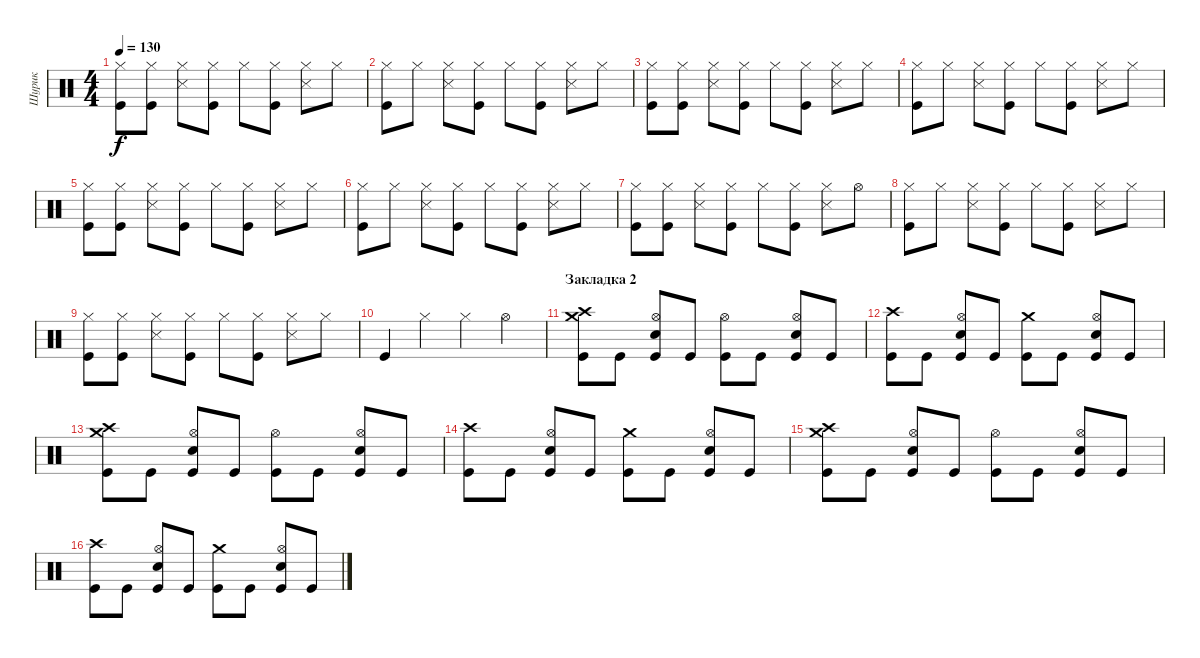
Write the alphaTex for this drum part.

\track ("Шурик" "Шурик") {instrument percussion}
\staff {score}
\articulation defaults
\ts (4 4)
\tempo 130
\clef neutral
\ks c
("Kick (hit)" "Hi-Hat (closed)").8{dy f} ("Kick (hit)" "Hi-Hat (closed)").8 ("Snare (side stick) 3" "Hi-Hat (closed)").8 ("Kick (hit)" "Hi-Hat (closed)").8 "Hi-Hat (closed)".8 ("Kick (hit)" "Hi-Hat (closed)").8 ("Snare (side stick) 3" "Hi-Hat (closed)").8 "Hi-Hat (closed)".8 |
("Kick (hit)" "Hi-Hat (closed)").8 "Hi-Hat (closed)".8 ("Snare (side stick) 3" "Hi-Hat (closed)").8 ("Kick (hit)" "Hi-Hat (closed)").8 "Hi-Hat (closed)".8 ("Kick (hit)" "Hi-Hat (closed)").8 ("Snare (side stick) 3" "Hi-Hat (closed)").8 "Hi-Hat (closed)".8 |
("Kick (hit)" "Hi-Hat (closed)").8 ("Kick (hit)" "Hi-Hat (closed)").8 ("Snare (side stick) 3" "Hi-Hat (closed)").8 ("Kick (hit)" "Hi-Hat (closed)").8 "Hi-Hat (closed)".8 ("Kick (hit)" "Hi-Hat (closed)").8 ("Snare (side stick) 3" "Hi-Hat (closed)").8 "Hi-Hat (closed)".8 |
("Kick (hit)" "Hi-Hat (closed)").8 "Hi-Hat (closed)".8 ("Snare (side stick) 3" "Hi-Hat (closed)").8 ("Kick (hit)" "Hi-Hat (closed)").8 "Hi-Hat (closed)".8 ("Kick (hit)" "Hi-Hat (closed)").8 ("Snare (side stick) 3" "Hi-Hat (closed)").8 "Hi-Hat (closed)".8 |
("Kick (hit)" "Hi-Hat (closed)").8 ("Kick (hit)" "Hi-Hat (closed)").8 ("Snare (side stick) 3" "Hi-Hat (closed)").8 ("Kick (hit)" "Hi-Hat (closed)").8 "Hi-Hat (closed)".8 ("Kick (hit)" "Hi-Hat (closed)").8 ("Snare (side stick) 3" "Hi-Hat (closed)").8 "Hi-Hat (closed)".8 |
("Kick (hit)" "Hi-Hat (closed)").8 "Hi-Hat (closed)".8 ("Snare (side stick) 3" "Hi-Hat (closed)").8 ("Kick (hit)" "Hi-Hat (closed)").8 "Hi-Hat (closed)".8 ("Kick (hit)" "Hi-Hat (closed)").8 ("Snare (side stick) 3" "Hi-Hat (closed)").8 "Hi-Hat (closed)".8 |
("Kick (hit)" "Hi-Hat (closed)").8 ("Kick (hit)" "Hi-Hat (closed)").8 ("Snare (side stick) 3" "Hi-Hat (closed)").8 ("Kick (hit)" "Hi-Hat (closed)").8 "Hi-Hat (closed)".8 ("Kick (hit)" "Hi-Hat (closed)").8 ("Snare (side stick) 3" "Hi-Hat (closed)").8 "Hi-Hat (open)".8 |
("Kick (hit)" "Hi-Hat (closed)").8 "Hi-Hat (closed)".8 ("Snare (side stick) 3" "Hi-Hat (closed)").8 ("Kick (hit)" "Hi-Hat (closed)").8 "Hi-Hat (closed)".8 ("Kick (hit)" "Hi-Hat (closed)").8 ("Snare (side stick) 3" "Hi-Hat (closed)").8 "Hi-Hat (closed)".8 |
("Kick (hit)" "Hi-Hat (closed)").8 ("Kick (hit)" "Hi-Hat (closed)").8 ("Snare (side stick) 3" "Hi-Hat (closed)").8 ("Kick (hit)" "Hi-Hat (closed)").8 "Hi-Hat (closed)".8 ("Kick (hit)" "Hi-Hat (closed)").8 ("Snare (side stick) 3" "Hi-Hat (closed)").8 "Hi-Hat (closed)".8 |
"Kick (hit)".4 "Hi-Hat (closed)".4 "Hi-Hat (closed)".4 "Hi-Hat (open)".4 |
\section ("" "Закладка 2")
("Crash medium (hit)" "Crash high (hit)" "Kick (hit)").8 "Kick (hit)".8 ("Hi-Hat (open)" "Electric Snare (hit)" "Kick (hit)").8 "Kick (hit)".8 ("Hi-Hat (open)" "Kick (hit)").8 "Kick (hit)".8 ("Hi-Hat (open)" "Electric Snare (hit)" "Kick (hit)").8 "Kick (hit)".8 |
("Crash high (hit)" "Kick (hit)").8 "Kick (hit)".8 ("Hi-Hat (open)" "Electric Snare (hit)" "Kick (hit)").8 "Kick (hit)".8 ("Crash medium (hit)" "Kick (hit)").8 "Kick (hit)".8 ("Hi-Hat (open)" "Electric Snare (hit)" "Kick (hit)").8 "Kick (hit)".8 |
("Crash medium (hit)" "Crash high (hit)" "Kick (hit)").8 "Kick (hit)".8 ("Hi-Hat (open)" "Electric Snare (hit)" "Kick (hit)").8 "Kick (hit)".8 ("Hi-Hat (open)" "Kick (hit)").8 "Kick (hit)".8 ("Hi-Hat (open)" "Electric Snare (hit)" "Kick (hit)").8 "Kick (hit)".8 |
("Crash high (hit)" "Kick (hit)").8 "Kick (hit)".8 ("Hi-Hat (open)" "Electric Snare (hit)" "Kick (hit)").8 "Kick (hit)".8 ("Crash medium (hit)" "Kick (hit)").8 "Kick (hit)".8 ("Hi-Hat (open)" "Electric Snare (hit)" "Kick (hit)").8 "Kick (hit)".8 |
("Crash medium (hit)" "Crash high (hit)" "Kick (hit)").8 "Kick (hit)".8 ("Hi-Hat (open)" "Electric Snare (hit)" "Kick (hit)").8 "Kick (hit)".8 ("Hi-Hat (open)" "Kick (hit)").8 "Kick (hit)".8 ("Hi-Hat (open)" "Electric Snare (hit)" "Kick (hit)").8 "Kick (hit)".8 |
("Crash high (hit)" "Kick (hit)").8 "Kick (hit)".8 ("Hi-Hat (open)" "Electric Snare (hit)" "Kick (hit)").8 "Kick (hit)".8 ("Crash medium (hit)" "Kick (hit)").8 "Kick (hit)".8 ("Hi-Hat (open)" "Electric Snare (hit)" "Kick (hit)").8 "Kick (hit)".8
